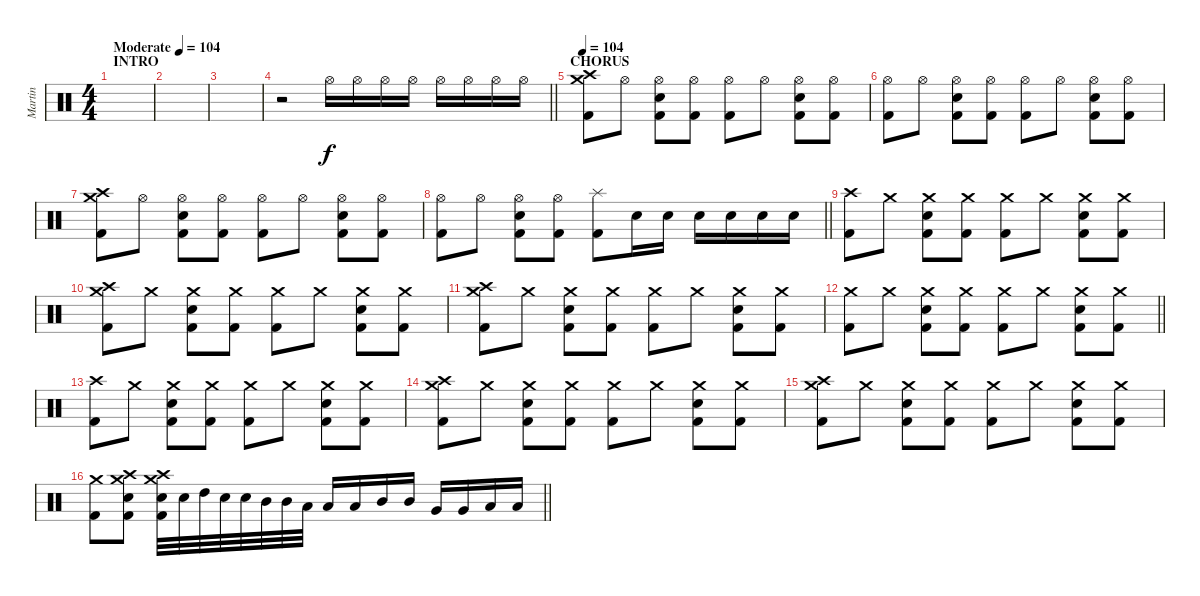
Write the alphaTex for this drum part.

\track ("Martin" "Martin") {instrument percussion}
\staff {score}
\articulation defaults
\ts (4 4)
\section ("" "INTRO")
\tempo (104 "Moderate")
\tempo 100
\tempo (104 "Moderate")
\clef neutral
\ks c
|
|
|
\barLineRight lightlight
r.2 "Hi-Hat (open)".16{volume 1} "Hi-Hat (open)".16{volume 3} "Hi-Hat (open)".16{volume 5} "Hi-Hat (open)".16{volume 7} "Hi-Hat (open)".16{volume 9} "Hi-Hat (open)".16{volume 11} "Hi-Hat (open)".16{volume 13} "Hi-Hat (open)".16{volume 15} |
\section ("" "CHORUS")
\tempo 104
("Crash high (hit)" "Crash medium (hit)" "Kick (hit) 2").8{volume 16} "Hi-Hat (open)".8 ("Hi-Hat (open)" "Electric Snare (hit)" "Kick (hit) 2").8 ("Hi-Hat (open)" "Kick (hit) 2").8 ("Hi-Hat (open)" "Kick (hit) 2").8 "Hi-Hat (open)".8 ("Hi-Hat (open)" "Electric Snare (hit)" "Kick (hit) 2").8 ("Hi-Hat (open)" "Kick (hit) 2").8 |
("Hi-Hat (open)" "Kick (hit) 2").8 "Hi-Hat (open)".8 ("Hi-Hat (open)" "Electric Snare (hit)" "Kick (hit) 2").8 ("Hi-Hat (open)" "Kick (hit) 2").8 ("Hi-Hat (open)" "Kick (hit) 2").8 "Hi-Hat (open)".8 ("Hi-Hat (open)" "Electric Snare (hit)" "Kick (hit) 2").8 ("Hi-Hat (open)" "Kick (hit) 2").8 |
("Crash high (hit)" "Crash medium (hit)" "Kick (hit) 2").8 "Hi-Hat (open)".8 ("Hi-Hat (open)" "Electric Snare (hit)" "Kick (hit) 2").8 ("Hi-Hat (open)" "Kick (hit) 2").8 ("Hi-Hat (open)" "Kick (hit) 2").8 "Hi-Hat (open)".8 ("Hi-Hat (open)" "Electric Snare (hit)" "Kick (hit) 2").8 ("Hi-Hat (open)" "Kick (hit) 2").8 |
\barLineRight lightlight
("Hi-Hat (open)" "Kick (hit) 2").8 "Hi-Hat (open)".8 ("Hi-Hat (open)" "Electric Snare (hit)" "Kick (hit) 2").8 ("Hi-Hat (open)" "Kick (hit) 2").8 ("Splash (hit)" "Kick (hit) 2").8 "Electric Snare (hit)".16 "Electric Snare (hit)".16 "Electric Snare (hit)".16 "Electric Snare (hit)".16 "Electric Snare (hit)".16 "Electric Snare (hit)".16 |
("Crash high (hit)" "Kick (hit) 2").8 "Crash medium (hit)".8 ("Crash medium (hit)" "Electric Snare (hit)" "Kick (hit) 2").8 ("Crash medium (hit)" "Kick (hit) 2").8 ("Crash medium (hit)" "Kick (hit) 2").8 "Crash medium (hit)".8 ("Crash medium (hit)" "Electric Snare (hit)" "Kick (hit) 2").8 ("Crash medium (hit)" "Kick (hit) 2").8 |
("Crash high (hit)" "Crash medium (hit)" "Kick (hit) 2").8 "Crash medium (hit)".8 ("Crash medium (hit)" "Electric Snare (hit)" "Kick (hit) 2").8 ("Crash medium (hit)" "Kick (hit) 2").8 ("Crash medium (hit)" "Kick (hit) 2").8 "Crash medium (hit)".8 ("Crash medium (hit)" "Electric Snare (hit)" "Kick (hit) 2").8 ("Crash medium (hit)" "Kick (hit) 2").8 |
("Crash high (hit)" "Crash medium (hit)" "Kick (hit) 2").8 "Crash medium (hit)".8 ("Crash medium (hit)" "Electric Snare (hit)" "Kick (hit) 2").8 ("Crash medium (hit)" "Kick (hit) 2").8 ("Crash medium (hit)" "Kick (hit) 2").8 "Crash medium (hit)".8 ("Crash medium (hit)" "Electric Snare (hit)" "Kick (hit) 2").8 ("Crash medium (hit)" "Kick (hit) 2").8 |
\barLineRight lightlight
("Crash medium (hit)" "Kick (hit) 2").8 "Crash medium (hit)".8 ("Crash medium (hit)" "Electric Snare (hit)" "Kick (hit) 2").8 ("Crash medium (hit)" "Kick (hit) 2").8 ("Crash medium (hit)" "Kick (hit) 2").8 "Crash medium (hit)".8 ("Crash medium (hit)" "Electric Snare (hit)" "Kick (hit) 2").8 ("Crash medium (hit)" "Kick (hit) 2").8 |
("Crash high (hit)" "Kick (hit) 2").8 "Crash medium (hit)".8 ("Crash medium (hit)" "Electric Snare (hit)" "Kick (hit) 2").8 ("Crash medium (hit)" "Kick (hit) 2").8 ("Crash medium (hit)" "Kick (hit) 2").8 "Crash medium (hit)".8 ("Crash medium (hit)" "Electric Snare (hit)" "Kick (hit) 2").8 ("Crash medium (hit)" "Kick (hit) 2").8 |
("Crash high (hit)" "Crash medium (hit)" "Kick (hit) 2").8 "Crash medium (hit)".8 ("Crash medium (hit)" "Electric Snare (hit)" "Kick (hit) 2").8 ("Crash medium (hit)" "Kick (hit) 2").8 ("Crash medium (hit)" "Kick (hit) 2").8 "Crash medium (hit)".8 ("Crash medium (hit)" "Electric Snare (hit)" "Kick (hit) 2").8 ("Crash medium (hit)" "Kick (hit) 2").8 |
("Crash high (hit)" "Crash medium (hit)" "Kick (hit) 2").8 "Crash medium (hit)".8 ("Crash medium (hit)" "Electric Snare (hit)" "Kick (hit) 2").8 ("Crash medium (hit)" "Kick (hit) 2").8 ("Crash medium (hit)" "Kick (hit) 2").8 "Crash medium (hit)".8 ("Crash medium (hit)" "Electric Snare (hit)" "Kick (hit) 2").8 ("Crash medium (hit)" "Kick (hit) 2").8 |
\barLineRight lightlight
("Crash medium (hit)" "Kick (hit) 2").8 ("Crash high (hit)" "Crash medium (hit)" "Electric Snare (hit)" "Kick (hit) 2").8 ("Crash high (hit)" "Crash medium (hit)" "Electric Snare (hit)" "Kick (hit) 2").32 "Electric Snare (hit)".32 "High Tom (hit)".32 "Electric Snare (hit)".32 "Electric Snare (hit)".32 "Mid Tom (hit)".32 "Mid Tom (hit)".32 "Low Tom (hit)".32 "Low Tom (hit)".16 "Low Tom (hit)".16 "Mid Tom (hit)".16 "Mid Tom (hit)".16 "Very Low Tom (hit)".16 "Very Low Tom (hit)".16 "Low Floor Tom (hit)".16 "Low Floor Tom (hit)".16
